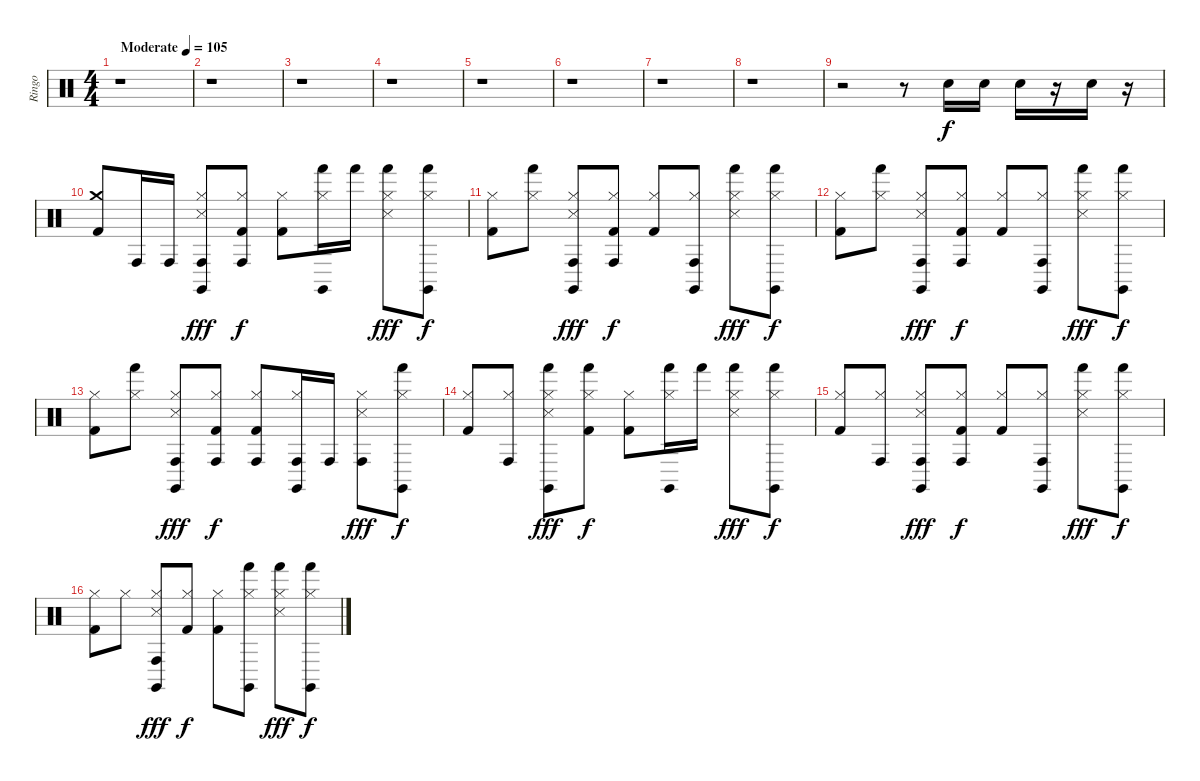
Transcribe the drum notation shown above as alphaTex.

\track ("Ringo" "Ringo") {instrument percussion}
\staff {score}
\articulation defaults
\ts (4 4)
\tempo (105 "Moderate")
\clef neutral
\ks c
r.1{dy f} |
r.1 |
r.1 |
r.1 |
r.1 |
r.1 |
r.1 |
r.1 |
r.2 r.8 "Snare (hit) 2".16 "Snare (hit) 2".16 "Snare (hit) 2".16 r.16 "Snare (hit) 2".16 r.16 |
("Crash medium (hit)" "Kick (hit) 2").8 "Conga high (hit)".16 "Conga high (hit)".16 ("Hi-Hat (closed)" "Snare (side stick) 3" "Claves (hit)" "Conga high (hit)").8{dy fff} ("Hi-Hat (closed)" "Conga high (hit)" "Kick (hit) 2").8{dy f} ("Kick (hit) 2" "Hi-Hat (closed)").8 ("Hi-Hat (closed)" "Claves (hit)" "Hand (hit)").16 "Hand (hit)".16 ("Hand (hit)" "Hi-Hat (closed)" "Snare (side stick) 3").8{dy fff} ("Hand (hit)" "Hi-Hat (closed)" "Claves (hit)").8{dy f} |
("Hi-Hat (closed)" "Kick (hit) 2").8 ("Hi-Hat (closed)" "Hand (hit)").8 ("Claves (hit)" "Snare (side stick) 3" "Hi-Hat (closed)" "Conga high (hit)").8{dy fff} ("Conga high (hit)" "Hi-Hat (closed)" "Kick (hit) 2").8{dy f} ("Hi-Hat (closed)" "Kick (hit) 2").8 ("Hi-Hat (closed)" "Claves (hit)" "Conga high (hit)").8 ("Snare (side stick) 3" "Hi-Hat (closed)" "Hand (hit)").8{dy fff} ("Claves (hit)" "Hi-Hat (closed)" "Hand (hit)").8{dy f} |
("Hi-Hat (closed)" "Kick (hit) 2").8 ("Hand (hit)" "Hi-Hat (closed)").8 ("Hi-Hat (closed)" "Snare (side stick) 3" "Claves (hit)" "Conga high (hit)").8{dy fff} ("Kick (hit) 2" "Conga high (hit)" "Hi-Hat (closed)").8{dy f} ("Kick (hit) 2" "Hi-Hat (closed)").8 ("Hi-Hat (closed)" "Conga high (hit)" "Claves (hit)").8 ("Hand (hit)" "Snare (side stick) 3" "Hi-Hat (closed)").8{dy fff} ("Claves (hit)" "Hand (hit)" "Hi-Hat (closed)").8{dy f} |
("Kick (hit) 2" "Hi-Hat (closed)").8 ("Hand (hit)" "Hi-Hat (closed)").8 ("Hi-Hat (closed)" "Claves (hit)" "Snare (side stick) 3" "Conga high (hit)").8{dy fff} ("Kick (hit) 2" "Conga high (hit)" "Hi-Hat (closed)").8{dy f} ("Kick (hit) 2" "Hi-Hat (closed)" "Conga high (hit)").8 ("Claves (hit)" "Conga high (hit)" "Hi-Hat (closed)").16 "Conga high (hit)".16 ("Hi-Hat (closed)" "Snare (side stick) 3" "Conga high (hit)").8{dy fff} ("Hi-Hat (closed)" "Claves (hit)" "Hand (hit)").8{dy f} |
("Hi-Hat (closed)" "Kick (hit) 2").8 ("Hi-Hat (closed)" "Conga high (hit)").8 ("Snare (side stick) 3" "Claves (hit)" "Hand (hit)" "Hi-Hat (closed)").8{dy fff} ("Kick (hit) 2" "Hand (hit)" "Hi-Hat (closed)").8{dy f} ("Kick (hit) 2" "Hi-Hat (closed)").8 ("Hand (hit)" "Hi-Hat (closed)" "Claves (hit)").16 "Hand (hit)".16 ("Snare (side stick) 3" "Hand (hit)" "Hi-Hat (closed)").8{dy fff} ("Claves (hit)" "Hi-Hat (closed)" "Hand (hit)").8{dy f} |
("Hi-Hat (closed)" "Kick (hit) 2").8 ("Conga high (hit)" "Hi-Hat (closed)").8 ("Claves (hit)" "Snare (side stick) 3" "Conga high (hit)" "Hi-Hat (closed)").8{dy fff} ("Hi-Hat (closed)" "Kick (hit) 2" "Conga high (hit)").8{dy f} ("Kick (hit) 2" "Hi-Hat (closed)").8 ("Conga high (hit)" "Hi-Hat (closed)" "Claves (hit)").8 ("Hand (hit)" "Snare (side stick) 3" "Hi-Hat (closed)").8{dy fff} ("Claves (hit)" "Hand (hit)" "Hi-Hat (closed)").8{dy f} |
("Hi-Hat (closed)" "Kick (hit) 2").8 "Hi-Hat (closed)".8 ("Conga high (hit)" "Hi-Hat (closed)" "Snare (side stick) 3" "Claves (hit)").8{dy fff} ("Hi-Hat (closed)" "Kick (hit) 2").8{dy f} ("Hi-Hat (closed)" "Kick (hit) 2").8 ("Claves (hit)" "Hi-Hat (closed)" "Hand (hit)").8 ("Snare (side stick) 3" "Hi-Hat (closed)" "Hand (hit)").8{dy fff} ("Claves (hit)" "Hi-Hat (closed)" "Hand (hit)").8{dy f}
